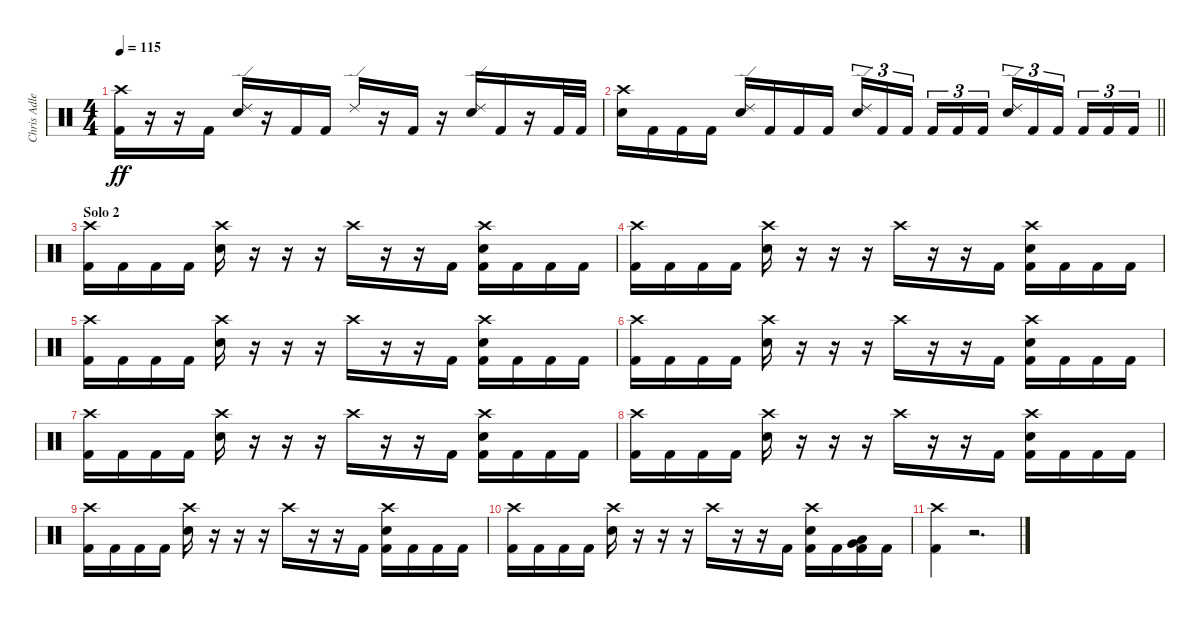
\track ("Chris Adler" "Chris Adle") {instrument percussion}
\staff {score}
\articulation defaults
\ts (4 4)
\tempo 115
\clef neutral
\ks c
("Crash high (hit)" "Kick (hit) 2").16{dy ff} r.16 r.16 "Kick (hit) 2".16 ("Ride (edge) 2" "Snare (hit) 2").16 r.16 "Kick (hit) 2".16 "Kick (hit) 2".16 "Ride (edge) 2".16 r.16 "Kick (hit) 2".16 r.16 ("Ride (edge) 2" "Snare (hit) 2").16 "Kick (hit) 2".16 r.16 "Kick (hit) 2".32 "Kick (hit) 2".32 |
\barLineRight lightlight
("Crash high (hit)" "Snare (hit) 2").16 "Kick (hit) 2".16 "Kick (hit) 2".16 "Kick (hit) 2".16 ("Ride (edge) 2" "Snare (hit) 2").16 "Kick (hit) 2".16 "Kick (hit) 2".16 "Kick (hit) 2".16 ("Ride (edge) 2" "Snare (hit) 2").16{tu (3 2)} "Kick (hit) 2".16{tu (3 2)} "Kick (hit) 2".16{tu (3 2) beam splitsecondary} "Kick (hit) 2".16{tu (3 2)} "Kick (hit) 2".16{tu (3 2)} "Kick (hit) 2".16{tu (3 2)} ("Ride (edge) 2" "Snare (hit) 2").16{tu (3 2)} "Kick (hit) 2".16{tu (3 2)} "Kick (hit) 2".16{tu (3 2) beam splitsecondary} "Kick (hit) 2".16{tu (3 2)} "Kick (hit) 2".16{tu (3 2)} "Kick (hit) 2".16{tu (3 2)} |
\section ("" "Solo 2")
("Crash high (hit)" "Kick (hit) 2").16 "Kick (hit) 2".16 "Kick (hit) 2".16 "Kick (hit) 2".16 ("Crash high (hit)" "Snare (hit) 2").16 r.16 r.16 r.16 "Crash high (hit)".16 r.16 r.16 "Kick (hit) 2".16 ("Crash high (hit)" "Snare (hit) 2" "Kick (hit) 2").16 "Kick (hit) 2".16 "Kick (hit) 2".16 "Kick (hit) 2".16 |
("Crash high (hit)" "Kick (hit) 2").16 "Kick (hit) 2".16 "Kick (hit) 2".16 "Kick (hit) 2".16 ("Crash high (hit)" "Snare (hit) 2").16 r.16 r.16 r.16 "Crash high (hit)".16 r.16 r.16 "Kick (hit) 2".16 ("Crash high (hit)" "Snare (hit) 2" "Kick (hit) 2").16 "Kick (hit) 2".16 "Kick (hit) 2".16 "Kick (hit) 2".16 |
("Crash high (hit)" "Kick (hit) 2").16 "Kick (hit) 2".16 "Kick (hit) 2".16 "Kick (hit) 2".16 ("Crash high (hit)" "Snare (hit) 2").16 r.16 r.16 r.16 "Crash high (hit)".16 r.16 r.16 "Kick (hit) 2".16 ("Crash high (hit)" "Snare (hit) 2" "Kick (hit) 2").16 "Kick (hit) 2".16 "Kick (hit) 2".16 "Kick (hit) 2".16 |
("Crash high (hit)" "Kick (hit) 2").16 "Kick (hit) 2".16 "Kick (hit) 2".16 "Kick (hit) 2".16 ("Crash high (hit)" "Snare (hit) 2").16 r.16 r.16 r.16 "Crash high (hit)".16 r.16 r.16 "Kick (hit) 2".16 ("Crash high (hit)" "Snare (hit) 2" "Kick (hit) 2").16 "Kick (hit) 2".16 "Kick (hit) 2".16 "Kick (hit) 2".16 |
("Crash high (hit)" "Kick (hit) 2").16 "Kick (hit) 2".16 "Kick (hit) 2".16 "Kick (hit) 2".16 ("Crash high (hit)" "Snare (hit) 2").16 r.16 r.16 r.16 "Crash high (hit)".16 r.16 r.16 "Kick (hit) 2".16 ("Crash high (hit)" "Snare (hit) 2" "Kick (hit) 2").16 "Kick (hit) 2".16 "Kick (hit) 2".16 "Kick (hit) 2".16 |
("Crash high (hit)" "Kick (hit) 2").16 "Kick (hit) 2".16 "Kick (hit) 2".16 "Kick (hit) 2".16 ("Crash high (hit)" "Snare (hit) 2").16 r.16 r.16 r.16 "Crash high (hit)".16 r.16 r.16 "Kick (hit) 2".16 ("Crash high (hit)" "Snare (hit) 2" "Kick (hit) 2").16 "Kick (hit) 2".16 "Kick (hit) 2".16 "Kick (hit) 2".16 |
("Crash high (hit)" "Kick (hit) 2").16 "Kick (hit) 2".16 "Kick (hit) 2".16 "Kick (hit) 2".16 ("Crash high (hit)" "Snare (hit) 2").16 r.16 r.16 r.16 "Crash high (hit)".16 r.16 r.16 "Kick (hit) 2".16 ("Crash high (hit)" "Snare (hit) 2" "Kick (hit) 2").16 "Kick (hit) 2".16 "Kick (hit) 2".16 "Kick (hit) 2".16 |
("Crash high (hit)" "Kick (hit) 2").16 "Kick (hit) 2".16 "Kick (hit) 2".16 "Kick (hit) 2".16 ("Crash high (hit)" "Snare (hit) 2").16 r.16 r.16 r.16 "Crash high (hit)".16 r.16 r.16 "Kick (hit) 2".16 ("Crash high (hit)" "Snare (hit) 2" "Kick (hit) 2").16 "Kick (hit) 2".16 ("Very Low Tom (hit)" "Low Tom (hit)" "Kick (hit) 2").16 "Kick (hit) 2".16 |
("Crash high (hit)" "Kick (hit) 2").4 r.2{d}
